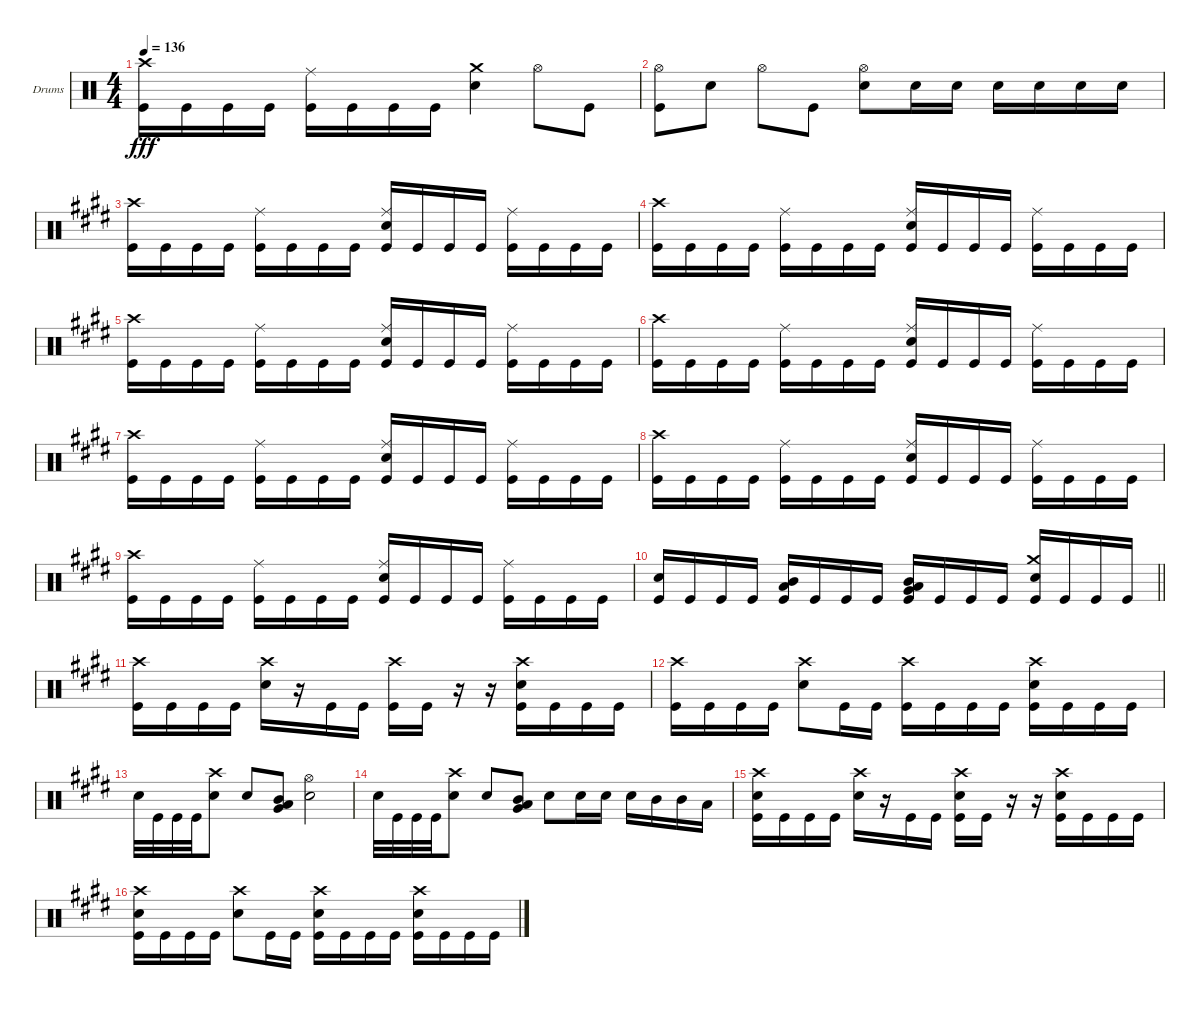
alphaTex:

\bracketExtendMode groupsimilarinstruments
\firstSystemTrackNameOrientation horizontal
\otherSystemsTrackNameOrientation horizontal
\track ("Drumkit" "Drums") {instrument percussion}
\staff {score}
\articulation defaults
\ts (4 4)
\tempo 136
\clef neutral
\ks c
("Crash high (hit)" "Kick (hit)").16{dy fff} "Kick (hit)".16 "Kick (hit)".16 "Kick (hit)".16 ("Ride (middle)" "Kick (hit)").16 "Kick (hit)".16 "Kick (hit)".16 "Kick (hit)".16 ("Crash medium (hit)" "Snare (hit) 2").4 "Hi-Hat (open)".8 "Kick (hit)".8 |
("Hi-Hat (open)" "Kick (hit)").8 "Snare (hit) 2".8 "Hi-Hat (open)".8 "Kick (hit)".8 ("Hi-Hat (open)" "Snare (hit) 2").8 "Snare (hit) 2".16 "Snare (hit) 2".16 "Snare (hit) 2".16 "Snare (hit) 2".16 "Snare (hit) 2".16 "Snare (hit) 2".16 |
\ks e
("Crash high (hit)" "Kick (hit)").16 "Kick (hit)".16 "Kick (hit)".16 "Kick (hit)".16 ("Ride (middle)" "Kick (hit)").16 "Kick (hit)".16 "Kick (hit)".16 "Kick (hit)".16 ("Ride (middle)" "Snare (hit) 2" "Kick (hit)").16 "Kick (hit)".16 "Kick (hit)".16 "Kick (hit)".16 ("Ride (middle)" "Kick (hit)").16 "Kick (hit)".16 "Kick (hit)".16 "Kick (hit)".16 |
("Crash high (hit)" "Kick (hit)").16 "Kick (hit)".16 "Kick (hit)".16 "Kick (hit)".16 ("Ride (middle)" "Kick (hit)").16 "Kick (hit)".16 "Kick (hit)".16 "Kick (hit)".16 ("Ride (middle)" "Snare (hit) 2" "Kick (hit)").16 "Kick (hit)".16 "Kick (hit)".16 "Kick (hit)".16 ("Ride (middle)" "Kick (hit)").16 "Kick (hit)".16 "Kick (hit)".16 "Kick (hit)".16 |
("Crash high (hit)" "Kick (hit)").16 "Kick (hit)".16 "Kick (hit)".16 "Kick (hit)".16 ("Ride (middle)" "Kick (hit)").16 "Kick (hit)".16 "Kick (hit)".16 "Kick (hit)".16 ("Ride (middle)" "Snare (hit) 2" "Kick (hit)").16 "Kick (hit)".16 "Kick (hit)".16 "Kick (hit)".16 ("Ride (middle)" "Kick (hit)").16 "Kick (hit)".16 "Kick (hit)".16 "Kick (hit)".16 |
("Crash high (hit)" "Kick (hit)").16 "Kick (hit)".16 "Kick (hit)".16 "Kick (hit)".16 ("Ride (middle)" "Kick (hit)").16 "Kick (hit)".16 "Kick (hit)".16 "Kick (hit)".16 ("Ride (middle)" "Snare (hit) 2" "Kick (hit)").16 "Kick (hit)".16 "Kick (hit)".16 "Kick (hit)".16 ("Ride (middle)" "Kick (hit)").16 "Kick (hit)".16 "Kick (hit)".16 "Kick (hit)".16 |
("Crash high (hit)" "Kick (hit)").16 "Kick (hit)".16 "Kick (hit)".16 "Kick (hit)".16 ("Ride (middle)" "Kick (hit)").16 "Kick (hit)".16 "Kick (hit)".16 "Kick (hit)".16 ("Ride (middle)" "Snare (hit) 2" "Kick (hit)").16 "Kick (hit)".16 "Kick (hit)".16 "Kick (hit)".16 ("Ride (middle)" "Kick (hit)").16 "Kick (hit)".16 "Kick (hit)".16 "Kick (hit)".16 |
("Crash high (hit)" "Kick (hit)").16 "Kick (hit)".16 "Kick (hit)".16 "Kick (hit)".16 ("Ride (middle)" "Kick (hit)").16 "Kick (hit)".16 "Kick (hit)".16 "Kick (hit)".16 ("Ride (middle)" "Snare (hit) 2" "Kick (hit)").16 "Kick (hit)".16 "Kick (hit)".16 "Kick (hit)".16 ("Ride (middle)" "Kick (hit)").16 "Kick (hit)".16 "Kick (hit)".16 "Kick (hit)".16 |
("Crash high (hit)" "Kick (hit)").16 "Kick (hit)".16 "Kick (hit)".16 "Kick (hit)".16 ("Ride (middle)" "Kick (hit)").16 "Kick (hit)".16 "Kick (hit)".16 "Kick (hit)".16 ("Ride (middle)" "Snare (hit) 2" "Kick (hit)").16 "Kick (hit)".16 "Kick (hit)".16 "Kick (hit)".16 ("Ride (middle)" "Kick (hit)").16 "Kick (hit)".16 "Kick (hit)".16 "Kick (hit)".16 |
\barLineRight lightlight
("Snare (hit) 2" "Kick (hit)").16 "Kick (hit)".16 "Kick (hit)".16 "Kick (hit)".16 ("Mid Tom (hit)" "Low Tom (hit)" "Kick (hit)").16 "Kick (hit)".16 "Kick (hit)".16 "Kick (hit)".16 ("Mid Tom (hit)" "Very Low Tom (hit)" "Low Tom (hit)" "Kick (hit)").16 "Kick (hit)".16 "Kick (hit)".16 "Kick (hit)".16 ("Crash medium (hit)" "Snare (hit) 2" "Kick (hit)").16 "Kick (hit)".16 "Kick (hit)".16 "Kick (hit)".16 |
("Crash high (hit)" "Kick (hit)").16 "Kick (hit)".16 "Kick (hit)".16 "Kick (hit)".16 ("Crash high (hit)" "Snare (hit) 2").16 r.16 "Kick (hit)".16 "Kick (hit)".16 ("Crash high (hit)" "Kick (hit)").16 "Kick (hit)".16 r.16 r.16 ("Crash high (hit)" "Snare (hit) 2" "Kick (hit)").16 "Kick (hit)".16 "Kick (hit)".16 "Kick (hit)".16 |
("Crash high (hit)" "Kick (hit)").16 "Kick (hit)".16 "Kick (hit)".16 "Kick (hit)".16 ("Crash high (hit)" "Snare (hit) 2").8 "Kick (hit)".16 "Kick (hit)".16 ("Crash high (hit)" "Kick (hit)").16 "Kick (hit)".16 "Kick (hit)".16 "Kick (hit)".16 ("Crash high (hit)" "Snare (hit) 2" "Kick (hit)").16 "Kick (hit)".16 "Kick (hit)".16 "Kick (hit)".16 |
"Snare (hit) 2".32 "Kick (hit)".32 "Kick (hit)".32 "Kick (hit)".32 ("Crash high (hit)" "Snare (hit) 2").8 "Snare (hit) 2".8 ("Mid Tom (hit)" "Very Low Tom (hit)" "Low Tom (hit)").8 ("Hi-Hat (open)" "Snare (hit) 2").2 |
"Snare (hit) 2".32 "Kick (hit)".32 "Kick (hit)".32 "Kick (hit)".32 ("Crash high (hit)" "Snare (hit) 2").8 "Snare (hit) 2".8 ("Very Low Tom (hit)" "Mid Tom (hit)" "Low Tom (hit)").8 "Snare (hit) 2".8 "Snare (hit) 2".16 "Snare (hit) 2".16 "Snare (hit) 2".16 "Mid Tom (hit)".16 "Mid Tom (hit)".16 "Low Tom (hit)".16 |
("Crash high (hit)" "Snare (hit) 2" "Kick (hit)").16 "Kick (hit)".16 "Kick (hit)".16 "Kick (hit)".16 ("Crash high (hit)" "Snare (hit) 2").16 r.16 "Kick (hit)".16 "Kick (hit)".16 ("Crash high (hit)" "Snare (hit) 2" "Kick (hit)").16 "Kick (hit)".16 r.16 r.16 ("Crash high (hit)" "Snare (hit) 2" "Kick (hit)").16 "Kick (hit)".16 "Kick (hit)".16 "Kick (hit)".16 |
("Crash high (hit)" "Snare (hit) 2" "Kick (hit)").16 "Kick (hit)".16 "Kick (hit)".16 "Kick (hit)".16 ("Crash high (hit)" "Snare (hit) 2").8 "Kick (hit)".16 "Kick (hit)".16 ("Crash high (hit)" "Snare (hit) 2" "Kick (hit)").16 "Kick (hit)".16 "Kick (hit)".16 "Kick (hit)".16 ("Crash high (hit)" "Snare (hit) 2" "Kick (hit)").16 "Kick (hit)".16 "Kick (hit)".16 "Kick (hit)".16
